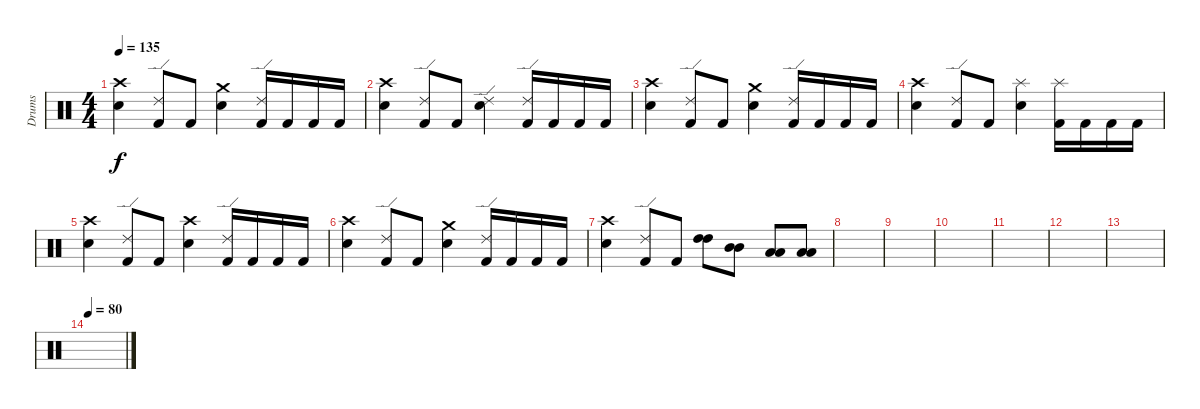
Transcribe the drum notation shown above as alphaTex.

\track ("Drums" "Drums") {instrument percussion}
\staff {score}
\articulation defaults
\ts (4 4)
\tempo 135
\clef neutral
\ks c
("Snare (hit) 2" "Crash high (hit)").4{dy f} ("Kick (hit) 2" "Ride (edge) 2").8 "Kick (hit) 2".8 ("Snare (hit) 2" "Crash medium (hit)").4 ("Kick (hit) 2" "Ride (edge) 2").16 "Kick (hit) 2".16 "Kick (hit) 2".16 "Kick (hit) 2".16 |
("Snare (hit) 2" "Crash high (hit)").4 ("Kick (hit) 2" "Ride (edge) 2").8 "Kick (hit) 2".8 ("Snare (hit) 2" "Ride (edge) 2").4 ("Kick (hit) 2" "Ride (edge) 2").16 "Kick (hit) 2".16 "Kick (hit) 2".16 "Kick (hit) 2".16 |
("Snare (hit) 2" "Crash high (hit)").4 ("Kick (hit) 2" "Ride (edge) 2").8 "Kick (hit) 2".8 ("Snare (hit) 2" "Crash medium (hit)").4 ("Kick (hit) 2" "Ride (edge) 2").16 "Kick (hit) 2".16 "Kick (hit) 2".16 "Kick (hit) 2".16 |
("Snare (hit) 2" "Crash high (hit)").4 ("Kick (hit) 2" "Ride (edge) 2").8 "Kick (hit) 2".8 ("Snare (hit) 2" "Splash (hit)").4 ("Kick (hit) 2" "Splash (hit)").16 "Kick (hit) 2".16 "Kick (hit) 2".16 "Kick (hit) 2".16 |
("Snare (hit) 2" "Crash high (hit)").4 ("Kick (hit) 2" "Ride (edge) 2").8 "Kick (hit) 2".8 ("Snare (hit) 2" "Crash high (hit)").4 ("Kick (hit) 2" "Ride (edge) 2").16 "Kick (hit) 2".16 "Kick (hit) 2".16 "Kick (hit) 2".16 |
("Snare (hit) 2" "Crash high (hit)").4 ("Kick (hit) 2" "Ride (edge) 2").8 "Kick (hit) 2".8 ("Snare (hit) 2" "Crash medium (hit)").4 ("Kick (hit) 2" "Ride (edge) 2").16 "Kick (hit) 2".16 "Kick (hit) 2".16 "Kick (hit) 2".16 |
("Snare (hit) 2" "Crash high (hit)").4 ("Kick (hit) 2" "Ride (edge) 2").8 "Kick (hit) 2".8 ("High Tom (hit)" "High Tom (hit)").8 ("Mid Tom (hit)" "Mid Tom (hit)").8 ("Low Tom (hit)" "Low Tom (hit)").8 ("Low Floor Tom (hit)" "Low Floor Tom (hit)").8 |
|
|
|
|
|
|
\tempo 80
